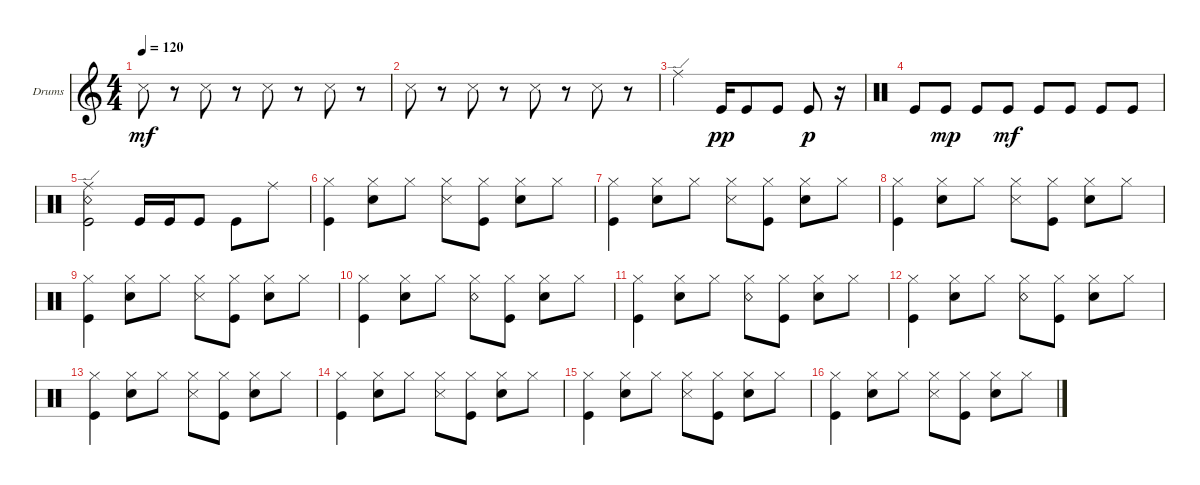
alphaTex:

\defaultSystemsLayout 4
\bracketExtendMode groupsimilarinstruments
\firstSystemTrackNameOrientation horizontal
\otherSystemsTrackNameOrientation horizontal
\track ("Drumkit" "Drums") {instrument percussion}
\staff {score}
\articulation defaults
\ts (4 4)
\tempo 120
\clef g2
\ks c "Snare (side stick) 3".8{dy mf}
r.8 "Snare (side stick) 3".8 r.8 "Snare (side stick) 3".8 r.8 "Snare (side stick) 3".8 r.8 |
"Snare (side stick) 3".8 r.8 "Snare (side stick) 3".8 r.8 "Snare (side stick) 3".8 r.8 "Snare (side stick) 3".8 r.8 |
"Ride (edge)".2 "Kick (hit)".16{dy pp} "Kick (hit)".8 "Kick (hit)".8 "Kick (hit)".8{dy p} r.16 |
\clef neutral "Kick (hit)".8 "Kick (hit)".8{dy mp} "Kick (hit)".8 "Kick (hit)".8{dy mf} "Kick (hit)".8 "Kick (hit)".8 "Kick (hit)".8 "Kick (hit)".8
|
("Snare (rim shot)" "Kick (hit)" "Ride (edge)").2 "Kick (hit)".16 "Kick (hit)".16 "Kick (hit)".8 "Kick (hit)".8 "Ride (middle)".8 |
("Kick (hit)" "Hi-Hat (closed)").4 ("Snare (hit) 2" "Hi-Hat (closed)").8 "Hi-Hat (closed)".8 ("Snare (side stick) 3" "Hi-Hat (closed)").8 ("Hi-Hat (closed)" "Kick (hit)").8 ("Hi-Hat (closed)" "Snare (hit) 2").8 "Hi-Hat (closed)".8 |
("Kick (hit)" "Hi-Hat (closed)").4 ("Snare (hit) 2" "Hi-Hat (closed)").8 "Hi-Hat (closed)".8 ("Snare (side stick) 3" "Hi-Hat (closed)").8 ("Hi-Hat (closed)" "Kick (hit)").8 ("Hi-Hat (closed)" "Snare (hit) 2").8 "Hi-Hat (closed)".8 |
("Kick (hit)" "Hi-Hat (closed)").4 ("Snare (hit) 2" "Hi-Hat (closed)").8 "Hi-Hat (closed)".8 ("Snare (side stick) 3" "Hi-Hat (closed)").8 ("Hi-Hat (closed)" "Kick (hit)").8 ("Hi-Hat (closed)" "Snare (hit) 2").8 "Hi-Hat (closed)".8 |
("Kick (hit)" "Hi-Hat (closed)").4 ("Snare (hit) 2" "Hi-Hat (closed)").8 "Hi-Hat (closed)".8 ("Snare (side stick) 3" "Hi-Hat (closed)").8 ("Hi-Hat (closed)" "Kick (hit)").8 ("Hi-Hat (closed)" "Snare (hit) 2").8 "Hi-Hat (closed)".8 |
("Kick (hit)" "Hi-Hat (closed)").4 ("Snare (hit) 2" "Hi-Hat (closed)").8 "Hi-Hat (closed)".8 ("Snare (rim shot)" "Hi-Hat (closed)").8 ("Hi-Hat (closed)" "Kick (hit)").8 ("Hi-Hat (closed)" "Snare (hit) 2").8 "Hi-Hat (closed)".8 |
("Kick (hit)" "Hi-Hat (closed)").4 ("Snare (hit) 2" "Hi-Hat (closed)").8 "Hi-Hat (closed)".8 ("Snare (rim shot)" "Hi-Hat (closed)").8 ("Hi-Hat (closed)" "Kick (hit)").8 ("Hi-Hat (closed)" "Snare (hit) 2").8 "Hi-Hat (closed)".8 |
("Kick (hit)" "Hi-Hat (closed)").4 ("Snare (hit) 2" "Hi-Hat (closed)").8 "Hi-Hat (closed)".8 ("Snare (rim shot)" "Hi-Hat (closed)").8 ("Hi-Hat (closed)" "Kick (hit)").8 ("Hi-Hat (closed)" "Snare (hit) 2").8 "Hi-Hat (closed)".8 |
("Kick (hit)" "Hi-Hat (closed)").4 ("Snare (hit) 2" "Hi-Hat (closed)").8 "Hi-Hat (closed)".8 ("Snare (side stick) 3" "Hi-Hat (closed)").8 ("Hi-Hat (closed)" "Kick (hit)").8 ("Hi-Hat (closed)" "Snare (hit) 2").8 "Hi-Hat (closed)".8 |
("Kick (hit)" "Hi-Hat (closed)").4 ("Snare (hit) 2" "Hi-Hat (closed)").8 "Hi-Hat (closed)".8 ("Snare (side stick) 3" "Hi-Hat (closed)").8 ("Hi-Hat (closed)" "Kick (hit)").8 ("Hi-Hat (closed)" "Snare (hit) 2").8 "Hi-Hat (closed)".8 |
("Kick (hit)" "Hi-Hat (closed)").4 ("Snare (hit) 2" "Hi-Hat (closed)").8 "Hi-Hat (closed)".8 ("Snare (side stick) 3" "Hi-Hat (closed)").8 ("Hi-Hat (closed)" "Kick (hit)").8 ("Hi-Hat (closed)" "Snare (hit) 2").8 "Hi-Hat (closed)".8 |
("Kick (hit)" "Hi-Hat (closed)").4 ("Snare (hit) 2" "Hi-Hat (closed)").8 "Hi-Hat (closed)".8 ("Snare (side stick) 3" "Hi-Hat (closed)").8 ("Hi-Hat (closed)" "Kick (hit)").8 ("Hi-Hat (closed)" "Snare (hit) 2").8 "Hi-Hat (closed)".8
